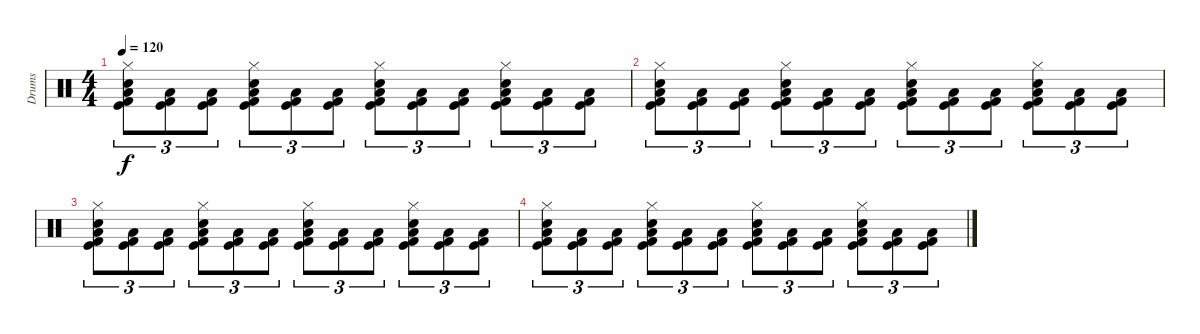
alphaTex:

\track ("Drums" "Drums") {instrument percussion}
\staff {score}
\articulation defaults
\ts (4 4)
\tempo 120
\clef neutral
\ks c
("Hi-Hat (closed)" "Snare (hit) 2" "Low Floor Tom (hit)" "Kick (hit) 2" "Kick (hit)").8{tu (3 2) dy f} ("Low Floor Tom (hit)" "Kick (hit) 2" "Kick (hit)").8{tu (3 2)} ("Low Floor Tom (hit)" "Kick (hit) 2" "Kick (hit)").8{tu (3 2)} ("Hi-Hat (closed)" "Snare (hit) 2" "Low Floor Tom (hit)" "Kick (hit) 2" "Kick (hit)").8{tu (3 2)} ("Low Floor Tom (hit)" "Kick (hit) 2" "Kick (hit)").8{tu (3 2)} ("Low Floor Tom (hit)" "Kick (hit) 2" "Kick (hit)").8{tu (3 2)} ("Hi-Hat (closed)" "Snare (hit) 2" "Low Floor Tom (hit)" "Kick (hit) 2" "Kick (hit)").8{tu (3 2)} ("Low Floor Tom (hit)" "Kick (hit) 2" "Kick (hit)").8{tu (3 2)} ("Low Floor Tom (hit)" "Kick (hit) 2" "Kick (hit)").8{tu (3 2)} ("Hi-Hat (closed)" "Snare (hit) 2" "Low Floor Tom (hit)" "Kick (hit) 2" "Kick (hit)").8{tu (3 2)} ("Low Floor Tom (hit)" "Kick (hit) 2" "Kick (hit)").8{tu (3 2)} ("Low Floor Tom (hit)" "Kick (hit) 2" "Kick (hit)").8{tu (3 2)} |
("Hi-Hat (closed)" "Snare (hit) 2" "Low Floor Tom (hit)" "Kick (hit) 2" "Kick (hit)").8{tu (3 2)} ("Low Floor Tom (hit)" "Kick (hit) 2" "Kick (hit)").8{tu (3 2)} ("Low Floor Tom (hit)" "Kick (hit) 2" "Kick (hit)").8{tu (3 2)} ("Hi-Hat (closed)" "Snare (hit) 2" "Low Floor Tom (hit)" "Kick (hit) 2" "Kick (hit)").8{tu (3 2)} ("Low Floor Tom (hit)" "Kick (hit) 2" "Kick (hit)").8{tu (3 2)} ("Low Floor Tom (hit)" "Kick (hit) 2" "Kick (hit)").8{tu (3 2)} ("Hi-Hat (closed)" "Snare (hit) 2" "Low Floor Tom (hit)" "Kick (hit) 2" "Kick (hit)").8{tu (3 2)} ("Low Floor Tom (hit)" "Kick (hit) 2" "Kick (hit)").8{tu (3 2)} ("Low Floor Tom (hit)" "Kick (hit) 2" "Kick (hit)").8{tu (3 2)} ("Hi-Hat (closed)" "Snare (hit) 2" "Low Floor Tom (hit)" "Kick (hit) 2" "Kick (hit)").8{tu (3 2)} ("Low Floor Tom (hit)" "Kick (hit) 2" "Kick (hit)").8{tu (3 2)} ("Low Floor Tom (hit)" "Kick (hit) 2" "Kick (hit)").8{tu (3 2)} |
("Hi-Hat (closed)" "Snare (hit) 2" "Low Floor Tom (hit)" "Kick (hit) 2" "Kick (hit)").8{tu (3 2)} ("Low Floor Tom (hit)" "Kick (hit) 2" "Kick (hit)").8{tu (3 2)} ("Low Floor Tom (hit)" "Kick (hit) 2" "Kick (hit)").8{tu (3 2)} ("Hi-Hat (closed)" "Snare (hit) 2" "Low Floor Tom (hit)" "Kick (hit) 2" "Kick (hit)").8{tu (3 2)} ("Low Floor Tom (hit)" "Kick (hit) 2" "Kick (hit)").8{tu (3 2)} ("Low Floor Tom (hit)" "Kick (hit) 2" "Kick (hit)").8{tu (3 2)} ("Hi-Hat (closed)" "Snare (hit) 2" "Low Floor Tom (hit)" "Kick (hit) 2" "Kick (hit)").8{tu (3 2)} ("Low Floor Tom (hit)" "Kick (hit) 2" "Kick (hit)").8{tu (3 2)} ("Low Floor Tom (hit)" "Kick (hit) 2" "Kick (hit)").8{tu (3 2)} ("Hi-Hat (closed)" "Snare (hit) 2" "Low Floor Tom (hit)" "Kick (hit) 2" "Kick (hit)").8{tu (3 2)} ("Low Floor Tom (hit)" "Kick (hit) 2" "Kick (hit)").8{tu (3 2)} ("Low Floor Tom (hit)" "Kick (hit) 2" "Kick (hit)").8{tu (3 2)} |
("Hi-Hat (closed)" "Snare (hit) 2" "Low Floor Tom (hit)" "Kick (hit) 2" "Kick (hit)").8{tu (3 2)} ("Low Floor Tom (hit)" "Kick (hit) 2" "Kick (hit)").8{tu (3 2)} ("Low Floor Tom (hit)" "Kick (hit) 2" "Kick (hit)").8{tu (3 2)} ("Hi-Hat (closed)" "Snare (hit) 2" "Low Floor Tom (hit)" "Kick (hit) 2" "Kick (hit)").8{tu (3 2)} ("Low Floor Tom (hit)" "Kick (hit) 2" "Kick (hit)").8{tu (3 2)} ("Low Floor Tom (hit)" "Kick (hit) 2" "Kick (hit)").8{tu (3 2)} ("Hi-Hat (closed)" "Snare (hit) 2" "Low Floor Tom (hit)" "Kick (hit) 2" "Kick (hit)").8{tu (3 2)} ("Low Floor Tom (hit)" "Kick (hit) 2" "Kick (hit)").8{tu (3 2)} ("Low Floor Tom (hit)" "Kick (hit) 2" "Kick (hit)").8{tu (3 2)} ("Hi-Hat (closed)" "Snare (hit) 2" "Low Floor Tom (hit)" "Kick (hit) 2" "Kick (hit)").8{tu (3 2)} ("Low Floor Tom (hit)" "Kick (hit) 2" "Kick (hit)").8{tu (3 2)} ("Low Floor Tom (hit)" "Kick (hit) 2" "Kick (hit)").8{tu (3 2)}
